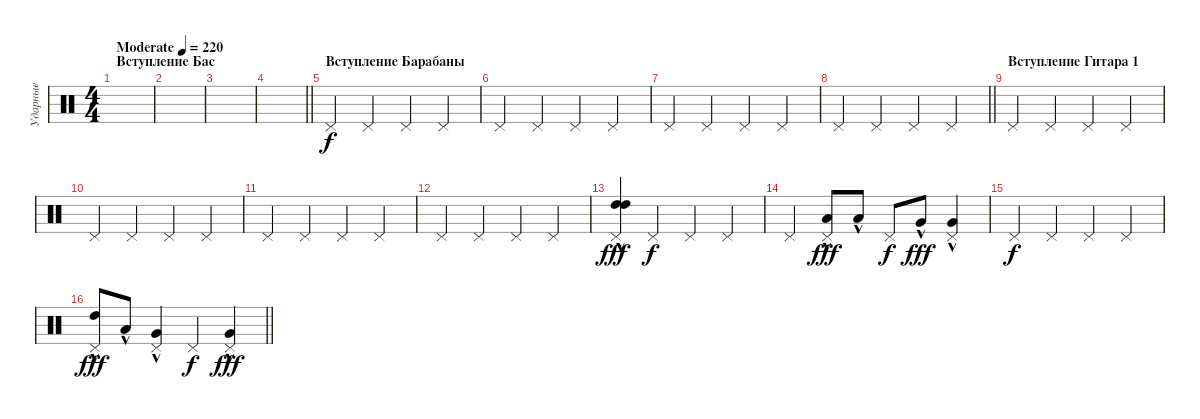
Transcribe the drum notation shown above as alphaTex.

\track ("Ударные" "Ударные") {instrument percussion}
\staff {score}
\articulation defaults
\ts (4 4)
\section ("" "Вступление Бас")
\tempo (220 "Moderate")
\clef neutral
\ks c
|
|
|
\barLineRight lightlight
|
\section ("" "Вступление Барабаны")
"Pedal Hi-Hat (hit)".4 "Pedal Hi-Hat (hit)".4 "Pedal Hi-Hat (hit)".4 "Pedal Hi-Hat (hit)".4 |
"Pedal Hi-Hat (hit)".4 "Pedal Hi-Hat (hit)".4 "Pedal Hi-Hat (hit)".4 "Pedal Hi-Hat (hit)".4 |
"Pedal Hi-Hat (hit)".4 "Pedal Hi-Hat (hit)".4 "Pedal Hi-Hat (hit)".4 "Pedal Hi-Hat (hit)".4 |
\barLineRight lightlight "Pedal Hi-Hat (hit)".4 "Pedal Hi-Hat (hit)".4 "Pedal Hi-Hat (hit)".4 "Pedal Hi-Hat (hit)".4
|
\section ("" "Вступление Гитара 1")
"Pedal Hi-Hat (hit)".4 "Pedal Hi-Hat (hit)".4 "Pedal Hi-Hat (hit)".4 "Pedal Hi-Hat (hit)".4 |
"Pedal Hi-Hat (hit)".4 "Pedal Hi-Hat (hit)".4 "Pedal Hi-Hat (hit)".4 "Pedal Hi-Hat (hit)".4 |
"Pedal Hi-Hat (hit)".4 "Pedal Hi-Hat (hit)".4 "Pedal Hi-Hat (hit)".4 "Pedal Hi-Hat (hit)".4 |
"Pedal Hi-Hat (hit)".4 "Pedal Hi-Hat (hit)".4 "Pedal Hi-Hat (hit)".4 "Pedal Hi-Hat (hit)".4 |
("High Tom (hit)"{hac} "High Tom (hit)"{hac} "Pedal Hi-Hat (hit)").4{dy fff} "Pedal Hi-Hat (hit)".4{dy f} "Pedal Hi-Hat (hit)".4 "Pedal Hi-Hat (hit)".4 |
"Pedal Hi-Hat (hit)".4 ("Low Tom (hit)"{hac} "Pedal Hi-Hat (hit)").8{dy fff} "Low Tom (hit)"{hac}.8 "Pedal Hi-Hat (hit)".8{dy f} "Very Low Tom (hit)"{hac}.8{dy fff} ("Very Low Tom (hit)"{hac} "Pedal Hi-Hat (hit)").4 |
"Pedal Hi-Hat (hit)".4{dy f} "Pedal Hi-Hat (hit)".4 "Pedal Hi-Hat (hit)".4 "Pedal Hi-Hat (hit)".4 |
\barLineRight lightlight
("High Tom (hit)"{hac} "Pedal Hi-Hat (hit)").8{dy fff} "Low Tom (hit)"{hac}.8 ("Very Low Tom (hit)"{hac} "Pedal Hi-Hat (hit)").4 "Pedal Hi-Hat (hit)".4{dy f} ("Very Low Tom (hit)"{hac} "Pedal Hi-Hat (hit)").4{dy fff}
